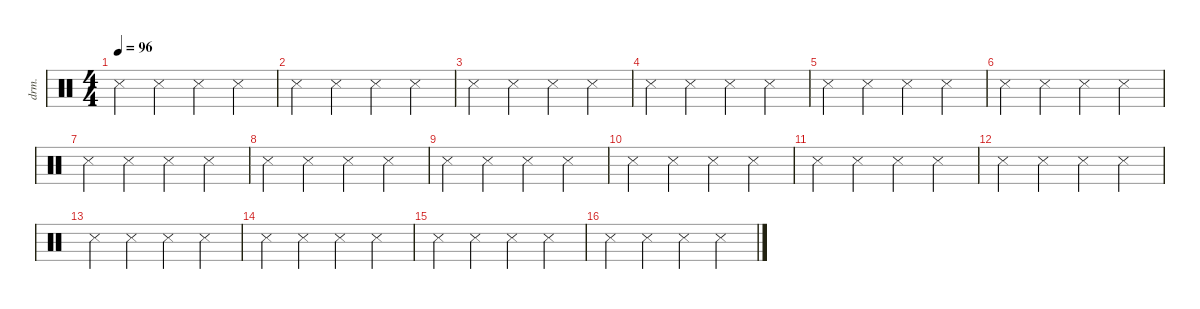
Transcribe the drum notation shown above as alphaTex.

\defaultSystemsLayout 4
\hideDynamics
\bracketExtendMode nobrackets
\otherSystemsTrackNameOrientation horizontal
\track ("Drumkit" "drm.") {instrument percussion}
\staff {score}
\articulation defaults
\ts (4 4)
\tempo 96
\clef neutral
\ks c "Metronome (hit)".4{dy mf beam Down} "Metronome (hit)".4{beam Down} "Metronome (hit)".4{beam Down} "Metronome (hit)".4{beam Down}
|
"Metronome (hit)".4{beam Down} "Metronome (hit)".4{beam Down} "Metronome (hit)".4{beam Down} "Metronome (hit)".4{beam Down} |
"Metronome (hit)".4{beam Down} "Metronome (hit)".4{beam Down} "Metronome (hit)".4{beam Down} "Metronome (hit)".4{beam Down} |
"Metronome (hit)".4{beam Down} "Metronome (hit)".4{beam Down} "Metronome (hit)".4{beam Down} "Metronome (hit)".4{beam Down} |
"Metronome (hit)".4{beam Down} "Metronome (hit)".4{beam Down} "Metronome (hit)".4{beam Down} "Metronome (hit)".4{beam Down} |
"Metronome (hit)".4{beam Down} "Metronome (hit)".4{beam Down} "Metronome (hit)".4{beam Down} "Metronome (hit)".4{beam Down} |
"Metronome (hit)".4{beam Down} "Metronome (hit)".4{beam Down} "Metronome (hit)".4{beam Down} "Metronome (hit)".4{beam Down} |
"Metronome (hit)".4{beam Down} "Metronome (hit)".4{beam Down} "Metronome (hit)".4{beam Down} "Metronome (hit)".4{beam Down} |
"Metronome (hit)".4{beam Down} "Metronome (hit)".4{beam Down} "Metronome (hit)".4{beam Down} "Metronome (hit)".4{beam Down} |
"Metronome (hit)".4{beam Down} "Metronome (hit)".4{beam Down} "Metronome (hit)".4{beam Down} "Metronome (hit)".4{beam Down} |
"Metronome (hit)".4{beam Down} "Metronome (hit)".4{beam Down} "Metronome (hit)".4{beam Down} "Metronome (hit)".4{beam Down} |
"Metronome (hit)".4{beam Down} "Metronome (hit)".4{beam Down} "Metronome (hit)".4{beam Down} "Metronome (hit)".4{beam Down} |
"Metronome (hit)".4{beam Down} "Metronome (hit)".4{beam Down} "Metronome (hit)".4{beam Down} "Metronome (hit)".4{beam Down} |
"Metronome (hit)".4{beam Down} "Metronome (hit)".4{beam Down} "Metronome (hit)".4{beam Down} "Metronome (hit)".4{beam Down} |
"Metronome (hit)".4{beam Down} "Metronome (hit)".4{beam Down} "Metronome (hit)".4{beam Down} "Metronome (hit)".4{beam Down} |
"Metronome (hit)".4{beam Down} "Metronome (hit)".4{beam Down} "Metronome (hit)".4{beam Down} "Metronome (hit)".4{beam Down}
